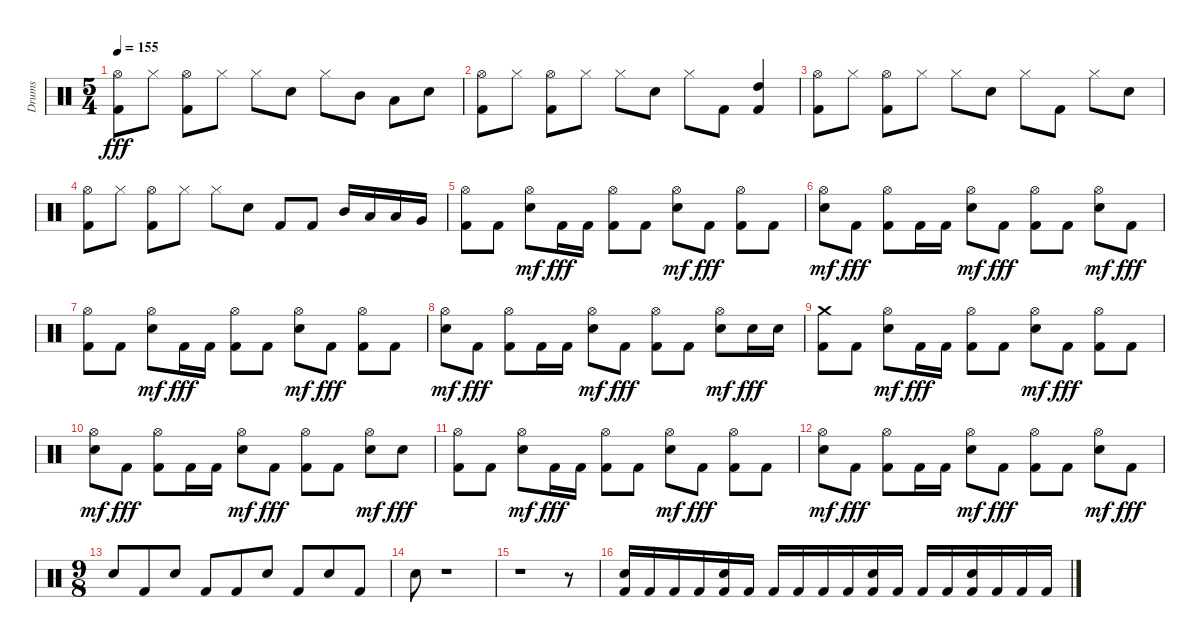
\track ("Drums" "Drums") {instrument percussion}
\staff {score}
\articulation defaults
\ts (5 4)
\tempo 155
\clef neutral
\ks c
("Hi-Hat (open)" "Kick (hit) 2").8{dy fff} "Hi-Hat (closed)".8 ("Hi-Hat (open)" "Kick (hit) 2").8 "Hi-Hat (closed)".8 "Hi-Hat (closed)".8 "Electric Snare (hit)".8 "Hi-Hat (closed)".8 "Mid Tom (hit)".8 "Low Tom (hit)".8 "Metronome (bell)".8 |
("Hi-Hat (open)" "Kick (hit) 2").8 "Hi-Hat (closed)".8 ("Hi-Hat (open)" "Kick (hit) 2").8 "Hi-Hat (closed)".8 "Hi-Hat (closed)".8 "Electric Snare (hit)".8 "Hi-Hat (closed)".8 "Kick (hit) 2".8 ("High Tom (hit)" "Kick (hit) 2").4 |
("Hi-Hat (open)" "Kick (hit) 2").8 "Hi-Hat (closed)".8 ("Hi-Hat (open)" "Kick (hit) 2").8 "Hi-Hat (closed)".8 "Hi-Hat (closed)".8 "Electric Snare (hit)".8 "Hi-Hat (closed)".8 "Kick (hit) 2".8 "Hi-Hat (closed)".8 "Electric Snare (hit)".8 |
("Hi-Hat (open)" "Kick (hit) 2").8 "Hi-Hat (closed)".8 ("Hi-Hat (open)" "Kick (hit) 2").8 "Hi-Hat (closed)".8 "Hi-Hat (closed)".8 "Electric Snare (hit)".8 "Kick (hit) 2".8 "Kick (hit) 2".8 "Mid Tom (hit)".16 "Low Tom (hit)".16 "Low Tom (hit)".16 "Very Low Tom (hit)".16 |
("Hi-Hat (open)" "Kick (hit) 2").8 "Kick (hit) 2".8 ("Electric Snare (hit)" "Hi-Hat (open)").8{dy mf} "Kick (hit) 2".16{dy fff} "Kick (hit) 2".16 ("Hi-Hat (open)" "Kick (hit) 2").8 "Kick (hit) 2".8 ("Electric Snare (hit)" "Hi-Hat (open)").8{dy mf} "Kick (hit) 2".8{dy fff} ("Hi-Hat (open)" "Kick (hit) 2").8 "Kick (hit) 2".8 |
("Electric Snare (hit)" "Hi-Hat (open)").8{dy mf} "Kick (hit) 2".8{dy fff} ("Hi-Hat (open)" "Kick (hit) 2").8 "Kick (hit) 2".16 "Kick (hit) 2".16 ("Electric Snare (hit)" "Hi-Hat (open)").8{dy mf} "Kick (hit) 2".8{dy fff} ("Hi-Hat (open)" "Kick (hit) 2").8 "Kick (hit) 2".8 ("Electric Snare (hit)" "Hi-Hat (open)").8{dy mf} "Kick (hit) 2".8{dy fff} |
("Hi-Hat (open)" "Kick (hit) 2").8 "Kick (hit) 2".8 ("Electric Snare (hit)" "Hi-Hat (open)").8{dy mf} "Kick (hit) 2".16{dy fff} "Kick (hit) 2".16 ("Hi-Hat (open)" "Kick (hit) 2").8 "Kick (hit) 2".8 ("Electric Snare (hit)" "Hi-Hat (open)").8{dy mf} "Kick (hit) 2".8{dy fff} ("Hi-Hat (open)" "Kick (hit) 2").8 "Kick (hit) 2".8 |
("Electric Snare (hit)" "Hi-Hat (open)").8{dy mf} "Kick (hit) 2".8{dy fff} ("Hi-Hat (open)" "Kick (hit) 2").8 "Kick (hit) 2".16 "Kick (hit) 2".16 ("Electric Snare (hit)" "Hi-Hat (open)").8{dy mf} "Kick (hit) 2".8{dy fff} ("Hi-Hat (open)" "Kick (hit) 2").8 "Kick (hit) 2".8 ("Electric Snare (hit)" "Hi-Hat (open)").8{dy mf} "Electric Snare (hit)".16{dy fff} "Electric Snare (hit)".16 |
("Crash medium (hit)" "Kick (hit) 2").8 "Kick (hit) 2".8 ("Electric Snare (hit)" "Hi-Hat (open)").8{dy mf} "Kick (hit) 2".16{dy fff} "Kick (hit) 2".16 ("Hi-Hat (open)" "Kick (hit) 2").8 "Kick (hit) 2".8 ("Electric Snare (hit)" "Hi-Hat (open)").8{dy mf} "Kick (hit) 2".8{dy fff} ("Hi-Hat (open)" "Kick (hit) 2").8 "Kick (hit) 2".8 |
("Electric Snare (hit)" "Hi-Hat (open)").8{dy mf} "Kick (hit) 2".8{dy fff} ("Hi-Hat (open)" "Kick (hit) 2").8 "Kick (hit) 2".16 "Kick (hit) 2".16 ("Electric Snare (hit)" "Hi-Hat (open)").8{dy mf} "Kick (hit) 2".8{dy fff} ("Hi-Hat (open)" "Kick (hit) 2").8 "Kick (hit) 2".8 ("Electric Snare (hit)" "Hi-Hat (open)").8{dy mf} "Electric Snare (hit)".8{dy fff} |
("Hi-Hat (open)" "Kick (hit) 2").8 "Kick (hit) 2".8 ("Electric Snare (hit)" "Hi-Hat (open)").8{dy mf} "Kick (hit) 2".16{dy fff} "Kick (hit) 2".16 ("Hi-Hat (open)" "Kick (hit) 2").8 "Kick (hit) 2".8 ("Electric Snare (hit)" "Hi-Hat (open)").8{dy mf} "Kick (hit) 2".8{dy fff} ("Hi-Hat (open)" "Kick (hit) 2").8 "Kick (hit) 2".8 |
("Electric Snare (hit)" "Hi-Hat (open)").8{dy mf} "Kick (hit) 2".8{dy fff} ("Hi-Hat (open)" "Kick (hit) 2").8 "Kick (hit) 2".16 "Kick (hit) 2".16 ("Electric Snare (hit)" "Hi-Hat (open)").8{dy mf} "Kick (hit) 2".8{dy fff} ("Hi-Hat (open)" "Kick (hit) 2").8 "Kick (hit) 2".8 ("Electric Snare (hit)" "Hi-Hat (open)").8{dy mf} "Kick (hit) 2".8{dy fff} |
\ts (9 8)
"Electric Snare (hit)".8 "Kick (hit) 2".8 "Electric Snare (hit)".8 "Kick (hit) 2".8 "Kick (hit) 2".8 "Electric Snare (hit)".8 "Kick (hit) 2".8 "Electric Snare (hit)".8 "Kick (hit) 2".8 |
"Electric Snare (hit)".8 r.1 |
r.1 r.8 |
("Electric Snare (hit)" "Kick (hit) 2").16 "Kick (hit) 2".16 "Kick (hit) 2".16 "Kick (hit) 2".16 ("Electric Snare (hit)" "Kick (hit) 2").16 "Kick (hit) 2".16 "Kick (hit) 2".16 "Kick (hit) 2".16 "Kick (hit) 2".16 "Kick (hit) 2".16 ("Electric Snare (hit)" "Kick (hit) 2").16 "Kick (hit) 2".16 "Kick (hit) 2".16 "Kick (hit) 2".16 ("Electric Snare (hit)" "Kick (hit) 2").16 "Kick (hit) 2".16 "Kick (hit) 2".16 "Kick (hit) 2".16
